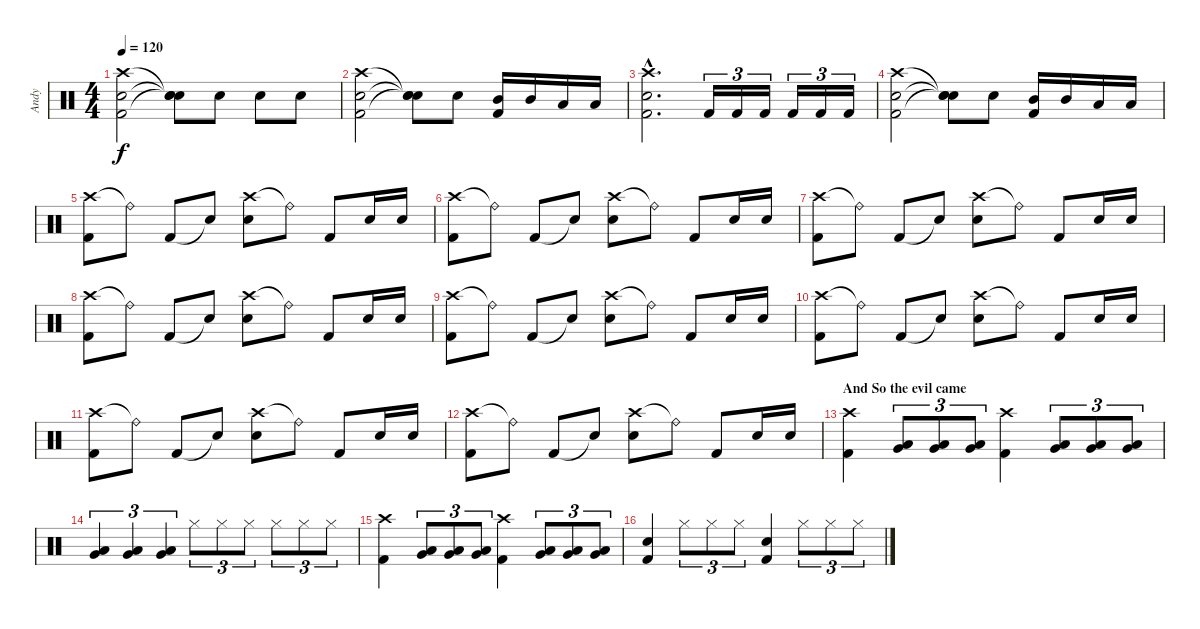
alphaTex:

\track ("Andy" "Andy") {instrument percussion}
\staff {score}
\articulation defaults
\ts (4 4)
\tempo 120
\clef neutral
\ks c
("Crash high (hit)" "Snare (hit) 2" "Kick (hit) 2").2{dy f} ("Snare (hit)"{t} "Snare (hit)"{t} "Snare (hit)"{t}).8 "Snare (hit) 2".8 "Snare (hit) 2".8 "Snare (hit) 2".8 |
("Crash high (hit)" "Snare (hit) 2" "Kick (hit) 2").2 ("Snare (hit)"{t} "Snare (hit)"{t} "Snare (hit)"{t}).8 "Snare (hit) 2".8 ("Mid Tom (hit)" "Kick (hit) 2").16 "Mid Tom (hit)".16 "Low Tom (hit)".16 "Low Tom (hit)".16 |
("Crash high (hit)"{hac} "Snare (hit) 2"{hac} "Kick (hit) 2"{hac}).2{d} "Kick (hit) 2".16{tu (3 2)} "Kick (hit) 2".16{tu (3 2)} "Kick (hit) 2".16{tu (3 2)} "Kick (hit) 2".16{tu (3 2)} "Kick (hit) 2".16{tu (3 2)} "Kick (hit) 2".16{tu (3 2)} |
("Crash high (hit)" "Snare (hit) 2" "Kick (hit) 2").2 ("Snare (hit)"{t} "Snare (hit)"{t} "Snare (hit)"{t}).8 "Snare (hit) 2".8 ("Mid Tom (hit)" "Kick (hit) 2").16 "Mid Tom (hit)".16 "Low Tom (hit)".16 "Low Tom (hit)".16 |
("Crash high (hit)" "Kick (hit) 2").8 "Ride (bell)"{t}.8 "Kick (hit) 2".8 "Snare (hit)"{t}.8 ("Crash high (hit)" "Snare (hit) 2").8 "Ride (bell)"{t}.8 "Kick (hit) 2".8 "Snare (hit) 2".16 "Snare (hit) 2".16 |
("Crash high (hit)" "Kick (hit) 2").8 "Ride (bell)"{t}.8 "Kick (hit) 2".8 "Snare (hit)"{t}.8 ("Crash high (hit)" "Snare (hit) 2").8 "Ride (bell)"{t}.8 "Kick (hit) 2".8 "Snare (hit) 2".16 "Snare (hit) 2".16 |
("Crash high (hit)" "Kick (hit) 2").8 "Ride (bell)"{t}.8 "Kick (hit) 2".8 "Snare (hit)"{t}.8 ("Crash high (hit)" "Snare (hit) 2").8 "Ride (bell)"{t}.8 "Kick (hit) 2".8 "Snare (hit) 2".16 "Snare (hit) 2".16 |
("Crash high (hit)" "Kick (hit) 2").8 "Ride (bell)"{t}.8 "Kick (hit) 2".8 "Snare (hit)"{t}.8 ("Crash high (hit)" "Snare (hit) 2").8 "Ride (bell)"{t}.8 "Kick (hit) 2".8 "Snare (hit) 2".16 "Snare (hit) 2".16 |
("Crash high (hit)" "Kick (hit) 2").8 "Ride (bell)"{t}.8 "Kick (hit) 2".8 "Snare (hit)"{t}.8 ("Crash high (hit)" "Snare (hit) 2").8 "Ride (bell)"{t}.8 "Kick (hit) 2".8 "Snare (hit) 2".16 "Snare (hit) 2".16 |
("Crash high (hit)" "Kick (hit) 2").8 "Ride (bell)"{t}.8 "Kick (hit) 2".8 "Snare (hit)"{t}.8 ("Crash high (hit)" "Snare (hit) 2").8 "Ride (bell)"{t}.8 "Kick (hit) 2".8 "Snare (hit) 2".16 "Snare (hit) 2".16 |
("Crash high (hit)" "Kick (hit) 2").8 "Ride (bell)"{t}.8 "Kick (hit) 2".8 "Snare (hit)"{t}.8 ("Crash high (hit)" "Snare (hit) 2").8 "Ride (bell)"{t}.8 "Kick (hit) 2".8 "Snare (hit) 2".16 "Snare (hit) 2".16 |
("Crash high (hit)" "Kick (hit) 2").8 "Ride (bell)"{t}.8 "Kick (hit) 2".8 "Snare (hit)"{t}.8 ("Crash high (hit)" "Snare (hit) 2").8 "Ride (bell)"{t}.8 "Kick (hit) 2".8 "Snare (hit) 2".16 "Snare (hit) 2".16 |
\section ("" "And So the evil came")
("Crash high (hit)" "Kick (hit) 2").4 ("Very Low Tom (hit)" "Low Tom (hit)").8{tu (3 2)} ("Very Low Tom (hit)" "Low Tom (hit)").8{tu (3 2)} ("Very Low Tom (hit)" "Low Tom (hit)").8{tu (3 2)} ("Crash high (hit)" "Kick (hit) 2").4 ("Very Low Tom (hit)" "Low Tom (hit)").8{tu (3 2)} ("Very Low Tom (hit)" "Low Tom (hit)").8{tu (3 2)} ("Very Low Tom (hit)" "Low Tom (hit)").8{tu (3 2)} |
("Very Low Tom (hit)" "Low Tom (hit)").4{tu (3 2)} ("Very Low Tom (hit)" "Low Tom (hit)").4{tu (3 2)} ("Very Low Tom (hit)" "Low Tom (hit)").4{tu (3 2)} "Hi-Hat (closed)".8{tu (3 2)} "Hi-Hat (closed)".8{tu (3 2)} "Hi-Hat (closed)".8{tu (3 2)} "Hi-Hat (closed)".8{tu (3 2)} "Hi-Hat (closed)".8{tu (3 2)} "Hi-Hat (closed)".8{tu (3 2)} |
("Crash high (hit)" "Kick (hit) 2").4 ("Very Low Tom (hit)" "Low Tom (hit)").8{tu (3 2)} ("Very Low Tom (hit)" "Low Tom (hit)").8{tu (3 2)} ("Very Low Tom (hit)" "Low Tom (hit)").8{tu (3 2)} ("Crash high (hit)" "Kick (hit) 2").4 ("Very Low Tom (hit)" "Low Tom (hit)").8{tu (3 2)} ("Very Low Tom (hit)" "Low Tom (hit)").8{tu (3 2)} ("Very Low Tom (hit)" "Low Tom (hit)").8{tu (3 2)} |
("Snare (hit) 2" "Kick (hit) 2").4 "Hi-Hat (closed)".8{tu (3 2)} "Hi-Hat (closed)".8{tu (3 2)} "Hi-Hat (closed)".8{tu (3 2)} ("Snare (hit) 2" "Kick (hit) 2").4 "Hi-Hat (closed)".8{tu (3 2)} "Hi-Hat (closed)".8{tu (3 2)} "Hi-Hat (closed)".8{tu (3 2)}
